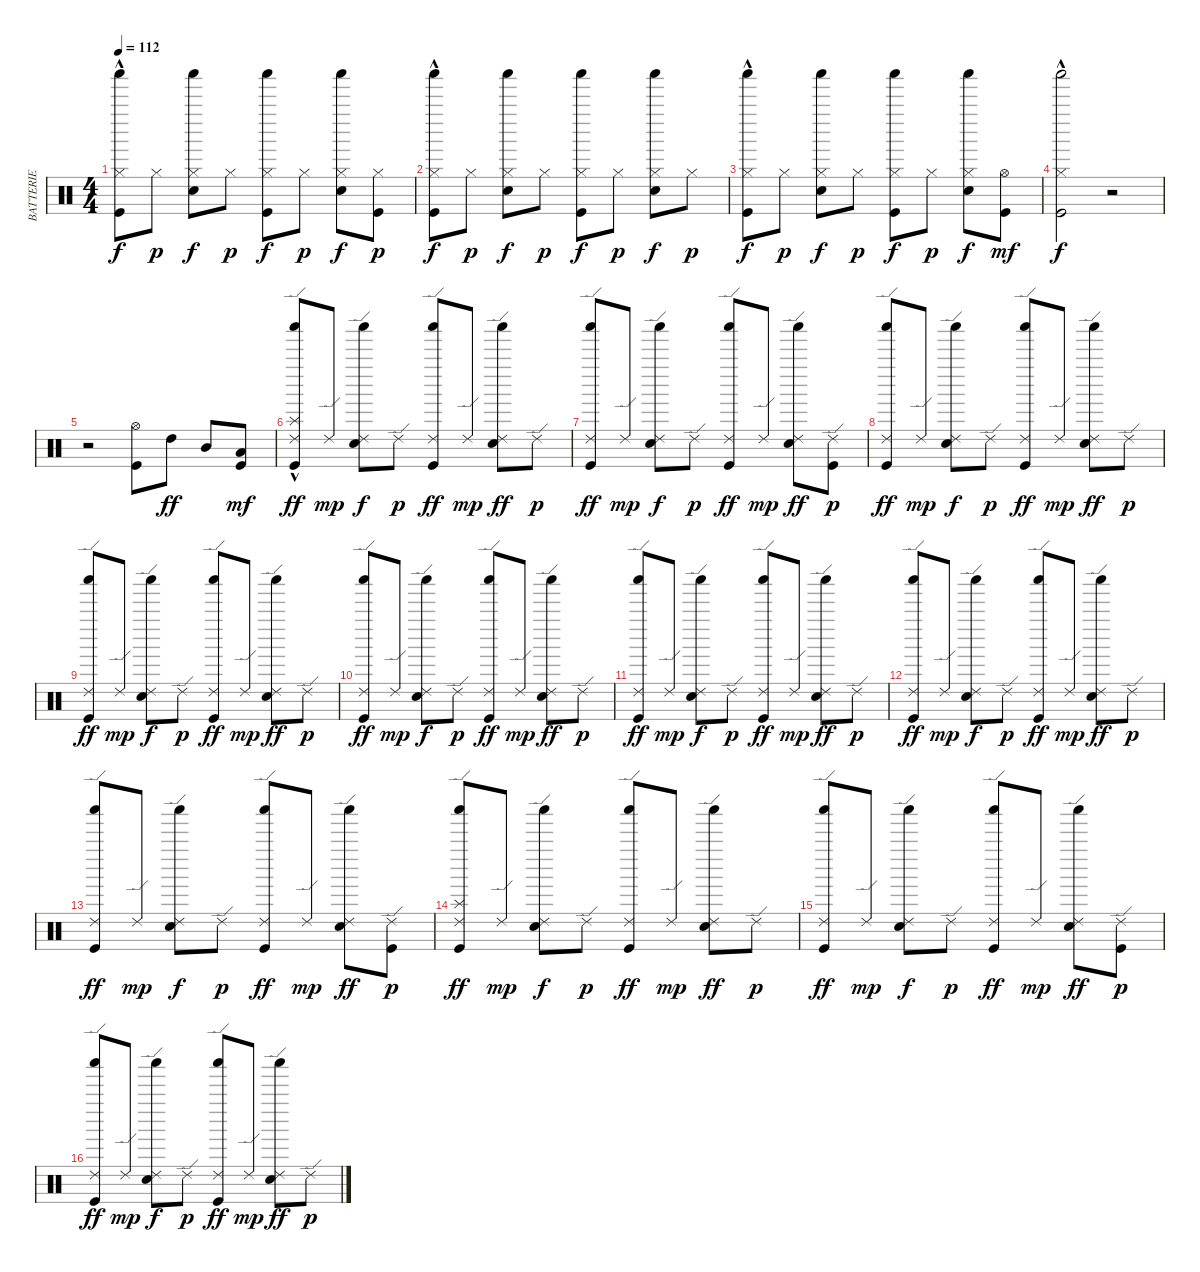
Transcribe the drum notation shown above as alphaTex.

\track ("BATTERIE" "BATTERIE") {instrument percussion}
\staff {score}
\articulation defaults
\ts (4 4)
\tempo 112
\clef neutral
\ks c
("Kick (hit)" "Hi-Hat (closed)"{hac} "Shaker (hit)").8{dy f} "Hi-Hat (closed)".8{dy p} ("Snare (hit) 2" "Hi-Hat (closed)" "Shaker (hit)").8{dy f} "Hi-Hat (closed)".8{dy p} ("Kick (hit)" "Hi-Hat (closed)" "Shaker (hit)").8{dy f} "Hi-Hat (closed)".8{dy p} ("Snare (hit) 2" "Hi-Hat (closed)" "Shaker (hit)").8{dy f} ("Kick (hit)" "Hi-Hat (closed)").8{dy p} |
("Kick (hit)" "Hi-Hat (closed)"{hac} "Shaker (hit)").8{dy f} "Hi-Hat (closed)".8{dy p} ("Snare (hit) 2" "Hi-Hat (closed)" "Shaker (hit)").8{dy f} "Hi-Hat (closed)".8{dy p} ("Kick (hit)" "Hi-Hat (closed)" "Shaker (hit)").8{dy f} "Hi-Hat (closed)".8{dy p} ("Snare (hit) 2" "Hi-Hat (closed)" "Shaker (hit)").8{dy f} "Hi-Hat (closed)".8{dy p} |
("Kick (hit)" "Hi-Hat (closed)"{hac} "Shaker (hit)").8{dy f} "Hi-Hat (closed)".8{dy p} ("Snare (hit) 2" "Hi-Hat (closed)" "Shaker (hit)").8{dy f} "Hi-Hat (closed)".8{dy p} ("Kick (hit)" "Hi-Hat (closed)" "Shaker (hit)").8{dy f} "Hi-Hat (closed)".8{dy p} ("Snare (hit) 2" "Hi-Hat (closed)" "Shaker (hit)").8{dy f} ("Kick (hit)" "Hi-Hat (open)").8{dy mf} |
("Kick (hit)" "Hi-Hat (closed)"{hac} "Shaker (hit)").2{dy f} r.2 |
r.2 ("Kick (hit)" "Hi-Hat (open)").8 "High Tom (hit)".8{dy ff} "Mid Tom (hit)".8 ("Low Tom (hit)" "Kick (hit)").8{dy mf} |
("Splash (hit)"{hac} "Kick (hit)" "Shaker (hit)" "Ride (edge) 2").8{dy ff} "Ride (edge) 2".8{dy mp} ("Snare (hit) 2" "Ride (edge) 2" "Shaker (hit)").8{dy f} "Ride (edge) 2".8{dy p} ("Kick (hit)" "Shaker (hit)" "Ride (edge) 2").8{dy ff} "Ride (edge) 2".8{dy mp} ("Snare (hit) 2" "Ride (edge) 2" "Shaker (hit)").8{dy ff} "Ride (edge) 2".8{dy p} |
("Kick (hit)" "Shaker (hit)" "Ride (edge) 2").8{dy ff} "Ride (edge) 2".8{dy mp} ("Snare (hit) 2" "Ride (edge) 2" "Shaker (hit)").8{dy f} "Ride (edge) 2".8{dy p} ("Kick (hit)" "Shaker (hit)" "Ride (edge) 2").8{dy ff} "Ride (edge) 2".8{dy mp} ("Snare (hit) 2" "Ride (edge) 2" "Shaker (hit)").8{dy ff} ("Kick (hit)" "Ride (edge) 2").8{dy p} |
("Kick (hit)" "Shaker (hit)" "Ride (edge) 2").8{dy ff} "Ride (edge) 2".8{dy mp} ("Snare (hit) 2" "Ride (edge) 2" "Shaker (hit)").8{dy f} "Ride (edge) 2".8{dy p} ("Kick (hit)" "Shaker (hit)" "Ride (edge) 2").8{dy ff} "Ride (edge) 2".8{dy mp} ("Snare (hit) 2" "Ride (edge) 2" "Shaker (hit)").8{dy ff} "Ride (edge) 2".8{dy p} |
("Kick (hit)" "Shaker (hit)" "Ride (edge) 2").8{dy ff} "Ride (edge) 2".8{dy mp} ("Snare (hit) 2" "Ride (edge) 2" "Shaker (hit)").8{dy f} "Ride (edge) 2".8{dy p} ("Kick (hit)" "Shaker (hit)" "Ride (edge) 2").8{dy ff} "Ride (edge) 2".8{dy mp} ("Snare (hit) 2" "Ride (edge) 2" "Shaker (hit)").8{dy ff} "Ride (edge) 2".8{dy p} |
("Kick (hit)" "Shaker (hit)" "Ride (edge) 2").8{dy ff} "Ride (edge) 2".8{dy mp} ("Snare (hit) 2" "Ride (edge) 2" "Shaker (hit)").8{dy f} "Ride (edge) 2".8{dy p} ("Kick (hit)" "Shaker (hit)" "Ride (edge) 2").8{dy ff} "Ride (edge) 2".8{dy mp} ("Snare (hit) 2" "Ride (edge) 2" "Shaker (hit)").8{dy ff} "Ride (edge) 2".8{dy p} |
("Kick (hit)" "Shaker (hit)" "Ride (edge) 2").8{dy ff} "Ride (edge) 2".8{dy mp} ("Snare (hit) 2" "Ride (edge) 2" "Shaker (hit)").8{dy f} "Ride (edge) 2".8{dy p} ("Kick (hit)" "Shaker (hit)" "Ride (edge) 2").8{dy ff} "Ride (edge) 2".8{dy mp} ("Snare (hit) 2" "Ride (edge) 2" "Shaker (hit)").8{dy ff} "Ride (edge) 2".8{dy p} |
("Kick (hit)" "Shaker (hit)" "Ride (edge) 2").8{dy ff} "Ride (edge) 2".8{dy mp} ("Snare (hit) 2" "Ride (edge) 2" "Shaker (hit)").8{dy f} "Ride (edge) 2".8{dy p} ("Kick (hit)" "Shaker (hit)" "Ride (edge) 2").8{dy ff} "Ride (edge) 2".8{dy mp} ("Snare (hit) 2" "Ride (edge) 2" "Shaker (hit)").8{dy ff} "Ride (edge) 2".8{dy p} |
("Kick (hit)" "Shaker (hit)" "Ride (edge) 2").8{dy ff} "Ride (edge) 2".8{dy mp} ("Snare (hit) 2" "Ride (edge) 2" "Shaker (hit)").8{dy f} "Ride (edge) 2".8{dy p} ("Kick (hit)" "Shaker (hit)" "Ride (edge) 2").8{dy ff} "Ride (edge) 2".8{dy mp} ("Snare (hit) 2" "Ride (edge) 2" "Shaker (hit)").8{dy ff} ("Ride (edge) 2" "Kick (hit)").8{dy p} |
("Splash (hit)" "Kick (hit)" "Shaker (hit)" "Ride (edge) 2").8{dy ff} "Ride (edge) 2".8{dy mp} ("Snare (hit) 2" "Ride (edge) 2" "Shaker (hit)").8{dy f} "Ride (edge) 2".8{dy p} ("Kick (hit)" "Shaker (hit)" "Ride (edge) 2").8{dy ff} "Ride (edge) 2".8{dy mp} ("Snare (hit) 2" "Ride (edge) 2" "Shaker (hit)").8{dy ff} "Ride (edge) 2".8{dy p} |
("Kick (hit)" "Shaker (hit)" "Ride (edge) 2").8{dy ff} "Ride (edge) 2".8{dy mp} ("Snare (hit) 2" "Ride (edge) 2" "Shaker (hit)").8{dy f} "Ride (edge) 2".8{dy p} ("Kick (hit)" "Shaker (hit)" "Ride (edge) 2").8{dy ff} "Ride (edge) 2".8{dy mp} ("Snare (hit) 2" "Ride (edge) 2" "Shaker (hit)").8{dy ff} ("Kick (hit)" "Ride (edge) 2").8{dy p} |
("Kick (hit)" "Shaker (hit)" "Ride (edge) 2").8{dy ff} "Ride (edge) 2".8{dy mp} ("Snare (hit) 2" "Ride (edge) 2" "Shaker (hit)").8{dy f} "Ride (edge) 2".8{dy p} ("Kick (hit)" "Shaker (hit)" "Ride (edge) 2").8{dy ff} "Ride (edge) 2".8{dy mp} ("Snare (hit) 2" "Ride (edge) 2" "Shaker (hit)").8{dy ff} "Ride (edge) 2".8{dy p}
